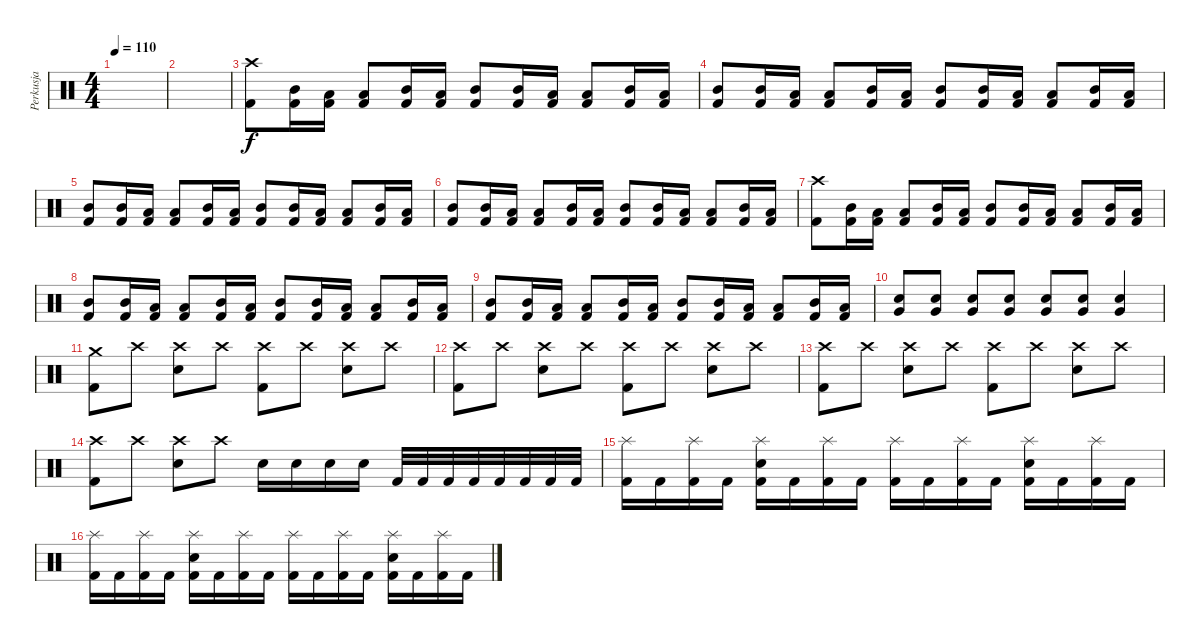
\track ("Perkusja" "Perkusja") {instrument percussion}
\staff {score}
\articulation defaults
\ts (4 4)
\tempo 110
\clef neutral
\ks c
|
|
("Crash high (hit)" "Kick (hit) 2").8{volume 14} ("Mid Tom (hit)" "Kick (hit) 2").16 ("Low Tom (hit)" "Kick (hit) 2").16 ("Low Tom (hit)" "Kick (hit) 2").8 ("Mid Tom (hit)" "Kick (hit) 2").16 ("Low Tom (hit)" "Kick (hit) 2").16 ("Mid Tom (hit)" "Kick (hit) 2").8 ("Mid Tom (hit)" "Kick (hit) 2").16 ("Low Tom (hit)" "Kick (hit) 2").16 ("Low Tom (hit)" "Kick (hit) 2").8 ("Mid Tom (hit)" "Kick (hit) 2").16 ("Low Tom (hit)" "Kick (hit) 2").16 |
("Mid Tom (hit)" "Kick (hit) 2").8 ("Mid Tom (hit)" "Kick (hit) 2").16 ("Low Tom (hit)" "Kick (hit) 2").16 ("Low Tom (hit)" "Kick (hit) 2").8 ("Mid Tom (hit)" "Kick (hit) 2").16 ("Low Tom (hit)" "Kick (hit) 2").16 ("Mid Tom (hit)" "Kick (hit) 2").8 ("Mid Tom (hit)" "Kick (hit) 2").16 ("Low Tom (hit)" "Kick (hit) 2").16 ("Low Tom (hit)" "Kick (hit) 2").8 ("Mid Tom (hit)" "Kick (hit) 2").16 ("Low Tom (hit)" "Kick (hit) 2").16 |
("Mid Tom (hit)" "Kick (hit) 2").8 ("Mid Tom (hit)" "Kick (hit) 2").16 ("Low Tom (hit)" "Kick (hit) 2").16 ("Low Tom (hit)" "Kick (hit) 2").8 ("Mid Tom (hit)" "Kick (hit) 2").16 ("Low Tom (hit)" "Kick (hit) 2").16 ("Mid Tom (hit)" "Kick (hit) 2").8 ("Mid Tom (hit)" "Kick (hit) 2").16 ("Low Tom (hit)" "Kick (hit) 2").16 ("Low Tom (hit)" "Kick (hit) 2").8 ("Mid Tom (hit)" "Kick (hit) 2").16 ("Low Tom (hit)" "Kick (hit) 2").16 |
("Mid Tom (hit)" "Kick (hit) 2").8 ("Mid Tom (hit)" "Kick (hit) 2").16 ("Low Tom (hit)" "Kick (hit) 2").16 ("Low Tom (hit)" "Kick (hit) 2").8 ("Mid Tom (hit)" "Kick (hit) 2").16 ("Low Tom (hit)" "Kick (hit) 2").16 ("Mid Tom (hit)" "Kick (hit) 2").8 ("Mid Tom (hit)" "Kick (hit) 2").16 ("Low Tom (hit)" "Kick (hit) 2").16 ("Low Tom (hit)" "Kick (hit) 2").8 ("Mid Tom (hit)" "Kick (hit) 2").16 ("Low Tom (hit)" "Kick (hit) 2").16 |
("Crash high (hit)" "Kick (hit) 2").8 ("Mid Tom (hit)" "Kick (hit) 2").16 ("Low Tom (hit)" "Kick (hit) 2").16 ("Low Tom (hit)" "Kick (hit) 2").8 ("Mid Tom (hit)" "Kick (hit) 2").16 ("Low Tom (hit)" "Kick (hit) 2").16 ("Mid Tom (hit)" "Kick (hit) 2").8 ("Mid Tom (hit)" "Kick (hit) 2").16 ("Low Tom (hit)" "Kick (hit) 2").16 ("Low Tom (hit)" "Kick (hit) 2").8 ("Mid Tom (hit)" "Kick (hit) 2").16 ("Low Tom (hit)" "Kick (hit) 2").16 |
("Mid Tom (hit)" "Kick (hit) 2").8 ("Mid Tom (hit)" "Kick (hit) 2").16 ("Low Tom (hit)" "Kick (hit) 2").16 ("Low Tom (hit)" "Kick (hit) 2").8 ("Mid Tom (hit)" "Kick (hit) 2").16 ("Low Tom (hit)" "Kick (hit) 2").16 ("Mid Tom (hit)" "Kick (hit) 2").8 ("Mid Tom (hit)" "Kick (hit) 2").16 ("Low Tom (hit)" "Kick (hit) 2").16 ("Low Tom (hit)" "Kick (hit) 2").8 ("Mid Tom (hit)" "Kick (hit) 2").16 ("Low Tom (hit)" "Kick (hit) 2").16 |
("Mid Tom (hit)" "Kick (hit) 2").8 ("Mid Tom (hit)" "Kick (hit) 2").16 ("Low Tom (hit)" "Kick (hit) 2").16 ("Low Tom (hit)" "Kick (hit) 2").8 ("Mid Tom (hit)" "Kick (hit) 2").16 ("Low Tom (hit)" "Kick (hit) 2").16 ("Mid Tom (hit)" "Kick (hit) 2").8 ("Mid Tom (hit)" "Kick (hit) 2").16 ("Low Tom (hit)" "Kick (hit) 2").16 ("Low Tom (hit)" "Kick (hit) 2").8 ("Mid Tom (hit)" "Kick (hit) 2").16 ("Low Tom (hit)" "Kick (hit) 2").16 |
("Snare (hit) 2" "Very Low Tom (hit)").8 ("Snare (hit) 2" "Very Low Tom (hit)").8 ("Snare (hit) 2" "Very Low Tom (hit)").8 ("Snare (hit) 2" "Very Low Tom (hit)").8 ("Snare (hit) 2" "Very Low Tom (hit)").8 ("Snare (hit) 2" "Very Low Tom (hit)").8 ("Snare (hit) 2" "Very Low Tom (hit)").4 |
("Crash medium (hit)" "Kick (hit) 2").8 "Crash high (hit)".8 ("Crash high (hit)" "Snare (hit) 2").8 "Crash high (hit)".8 ("Crash high (hit)" "Kick (hit) 2").8 "Crash high (hit)".8 ("Crash high (hit)" "Snare (hit) 2").8 "Crash high (hit)".8 |
("Crash high (hit)" "Kick (hit) 2").8 "Crash high (hit)".8 ("Crash high (hit)" "Snare (hit) 2").8 "Crash high (hit)".8 ("Crash high (hit)" "Kick (hit) 2").8 "Crash high (hit)".8 ("Crash high (hit)" "Snare (hit) 2").8 "Crash high (hit)".8 |
("Crash high (hit)" "Kick (hit) 2").8 "Crash high (hit)".8 ("Crash high (hit)" "Snare (hit) 2").8 "Crash high (hit)".8 ("Crash high (hit)" "Kick (hit) 2").8 "Crash high (hit)".8 ("Crash high (hit)" "Snare (hit) 2").8 "Crash high (hit)".8 |
("Crash high (hit)" "Kick (hit) 2").8 "Crash high (hit)".8 ("Crash high (hit)" "Snare (hit) 2").8 "Crash high (hit)".8 "Snare (hit) 2".16 "Snare (hit) 2".16 "Snare (hit) 2".16 "Snare (hit) 2".16 "Kick (hit) 2".32 "Kick (hit) 2".32 "Kick (hit) 2".32 "Kick (hit) 2".32 "Kick (hit) 2".32 "Kick (hit) 2".32 "Kick (hit) 2".32 "Kick (hit) 2".32 |
("Splash (hit)" "Kick (hit) 2").16 "Kick (hit) 2".16 ("Splash (hit)" "Kick (hit) 2").16 "Kick (hit) 2".16 ("Splash (hit)" "Snare (hit) 2" "Kick (hit) 2").16 "Kick (hit) 2".16 ("Splash (hit)" "Kick (hit) 2").16 "Kick (hit) 2".16 ("Splash (hit)" "Kick (hit) 2").16 "Kick (hit) 2".16 ("Splash (hit)" "Kick (hit) 2").16 "Kick (hit) 2".16 ("Splash (hit)" "Snare (hit) 2" "Kick (hit) 2").16 "Kick (hit) 2".16 ("Splash (hit)" "Kick (hit) 2").16 "Kick (hit) 2".16 |
("Splash (hit)" "Kick (hit) 2").16 "Kick (hit) 2".16 ("Splash (hit)" "Kick (hit) 2").16 "Kick (hit) 2".16 ("Splash (hit)" "Snare (hit) 2" "Kick (hit) 2").16 "Kick (hit) 2".16 ("Splash (hit)" "Kick (hit) 2").16 "Kick (hit) 2".16 ("Splash (hit)" "Kick (hit) 2").16 "Kick (hit) 2".16 ("Splash (hit)" "Kick (hit) 2").16 "Kick (hit) 2".16 ("Splash (hit)" "Snare (hit) 2" "Kick (hit) 2").16 "Kick (hit) 2".16 ("Splash (hit)" "Kick (hit) 2").16 "Kick (hit) 2".16
